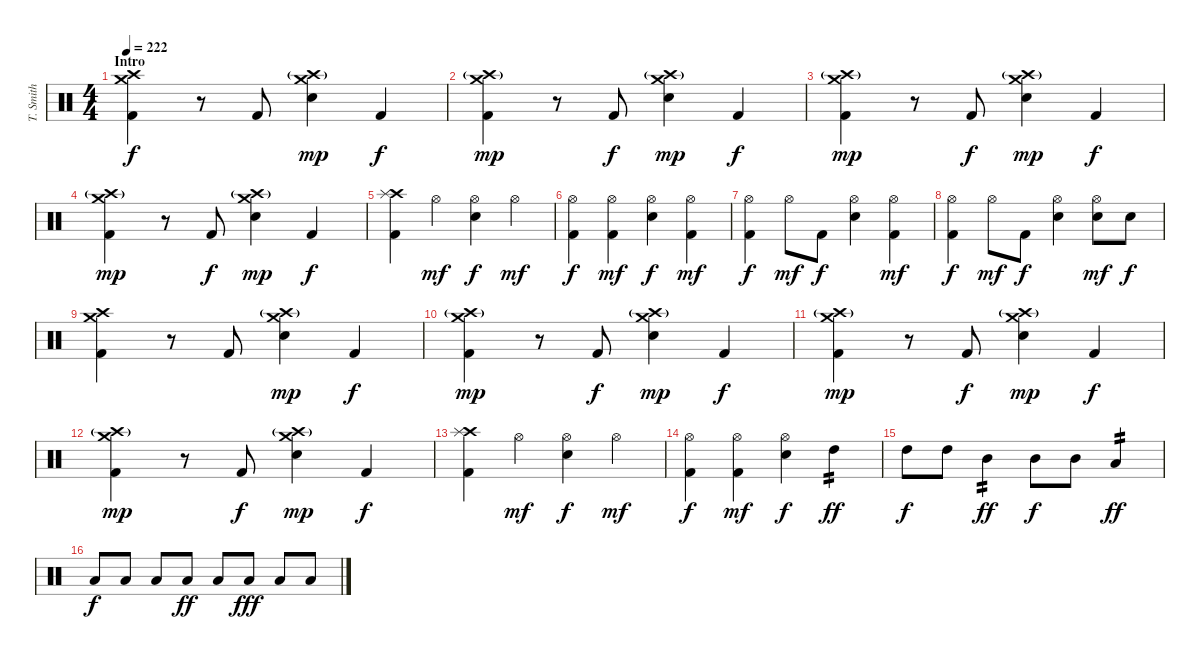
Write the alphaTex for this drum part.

\track ("T. Smith" "T. Smith") {instrument percussion}
\staff {score}
\articulation defaults
\ts (4 4)
\section ("" "Intro")
\tempo 222
\clef neutral
\ks c
("Crash medium (hit)" "Crash high (hit)" "Kick (hit) 2").4{dy f} r.8 "Kick (hit) 2".8 ("Crash medium (hit)" "Crash high (hit)"{g} "Electric Snare (hit)").4{dy mp} "Kick (hit) 2".4{dy f} |
("Crash medium (hit)" "Crash high (hit)"{g} "Kick (hit) 2").4{dy mp} r.8 "Kick (hit) 2".8{dy f} ("Crash medium (hit)" "Crash high (hit)"{g} "Electric Snare (hit)").4{dy mp} "Kick (hit) 2".4{dy f} |
("Crash medium (hit)" "Crash high (hit)"{g} "Kick (hit) 2").4{dy mp} r.8 "Kick (hit) 2".8{dy f} ("Crash medium (hit)" "Crash high (hit)"{g} "Electric Snare (hit)").4{dy mp} "Kick (hit) 2".4{dy f} |
("Crash medium (hit)" "Crash high (hit)"{g} "Kick (hit) 2").4{dy mp} r.8 "Kick (hit) 2".8{dy f} ("Crash medium (hit)" "Crash high (hit)"{g} "Electric Snare (hit)").4{dy mp} "Kick (hit) 2".4{dy f} |
("Crash high (hit)" "Splash (hit)" "Kick (hit) 2").4 "Hi-Hat (open)".4{dy mf} ("Hi-Hat (open)" "Electric Snare (hit)").4{dy f} "Hi-Hat (open)".4{dy mf} |
("Hi-Hat (open)" "Kick (hit) 2").4{dy f} ("Hi-Hat (open)" "Kick (hit) 2").4{dy mf} ("Hi-Hat (open)" "Electric Snare (hit)").4{dy f} ("Hi-Hat (open)" "Kick (hit) 2").4{dy mf} |
("Hi-Hat (open)" "Kick (hit) 2").4{dy f} "Hi-Hat (open)".8{dy mf} "Kick (hit) 2".8{dy f} ("Hi-Hat (open)" "Electric Snare (hit)").4 ("Hi-Hat (open)" "Kick (hit) 2").4{dy mf} |
("Hi-Hat (open)" "Kick (hit) 2").4{dy f} "Hi-Hat (open)".8{dy mf} "Kick (hit) 2".8{dy f} ("Hi-Hat (open)" "Electric Snare (hit)").4 ("Hi-Hat (open)" "Electric Snare (hit)").8{dy mf} "Electric Snare (hit)".8{dy f} |
("Crash medium (hit)" "Crash high (hit)" "Kick (hit) 2").4 r.8 "Kick (hit) 2".8 ("Crash medium (hit)" "Crash high (hit)"{g} "Electric Snare (hit)").4{dy mp} "Kick (hit) 2".4{dy f} |
("Crash medium (hit)" "Crash high (hit)"{g} "Kick (hit) 2").4{dy mp} r.8 "Kick (hit) 2".8{dy f} ("Crash medium (hit)" "Crash high (hit)"{g} "Electric Snare (hit)").4{dy mp} "Kick (hit) 2".4{dy f} |
("Crash medium (hit)" "Crash high (hit)"{g} "Kick (hit) 2").4{dy mp} r.8 "Kick (hit) 2".8{dy f} ("Crash medium (hit)" "Crash high (hit)"{g} "Electric Snare (hit)").4{dy mp} "Kick (hit) 2".4{dy f} |
("Crash medium (hit)" "Crash high (hit)"{g} "Kick (hit) 2").4{dy mp} r.8 "Kick (hit) 2".8{dy f} ("Crash medium (hit)" "Crash high (hit)"{g} "Electric Snare (hit)").4{dy mp} "Kick (hit) 2".4{dy f} |
("Crash high (hit)" "Splash (hit)" "Kick (hit) 2").4 "Hi-Hat (open)".4{dy mf} ("Hi-Hat (open)" "Electric Snare (hit)").4{dy f} "Hi-Hat (open)".4{dy mf} |
("Hi-Hat (open)" "Kick (hit) 2").4{dy f} ("Hi-Hat (open)" "Kick (hit) 2").4{dy mf} ("Hi-Hat (open)" "Electric Snare (hit)").4{dy f} "High Tom (hit)".4{tp 2 dy ff} |
"High Tom (hit)".8{dy f} "High Tom (hit)".8 "Mid Tom (hit)".4{tp 2 dy ff} "Mid Tom (hit)".8{dy f} "Mid Tom (hit)".8 "Low Tom (hit)".4{tp 2 dy ff} |
"Low Tom (hit)".8{dy f} "Low Tom (hit)".8 "Low Tom (hit)".8 "Low Tom (hit)".8{dy ff} "Low Tom (hit)".8 "Low Tom (hit)".8{dy fff} "Low Tom (hit)".8 "Low Tom (hit)".8
